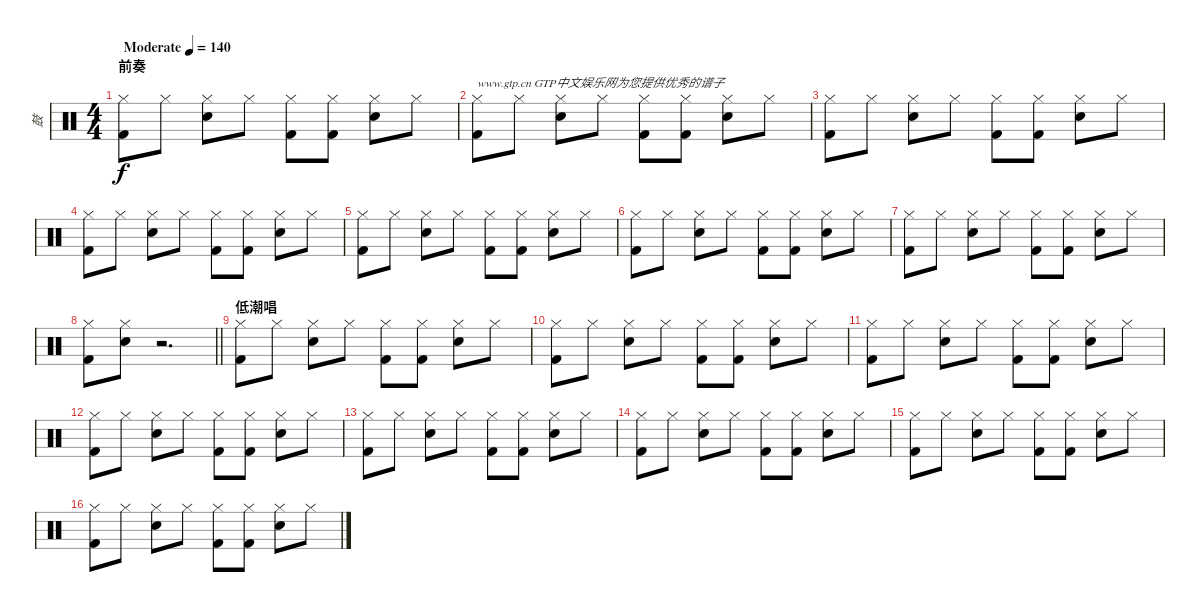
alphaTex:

\track ("鼓" "鼓") {instrument percussion}
\staff {score}
\articulation defaults
\ts (4 4)
\section ("" "前奏")
\tempo (140 "Moderate")
\clef neutral
\ks c
("Hi-Hat (closed)" "Kick (hit) 2").8{dy f} "Hi-Hat (closed)".8 ("Hi-Hat (closed)" "Snare (hit) 2").8 "Hi-Hat (closed)".8 ("Hi-Hat (closed)" "Kick (hit) 2").8 ("Hi-Hat (closed)" "Kick (hit) 2").8 ("Hi-Hat (closed)" "Snare (hit) 2").8 "Hi-Hat (closed)".8 |
("Hi-Hat (closed)" "Kick (hit) 2").8{txt "www.gtp.cn GTP中文娱乐网为您提供优秀的谱子"} "Hi-Hat (closed)".8 ("Hi-Hat (closed)" "Snare (hit) 2").8 "Hi-Hat (closed)".8 ("Hi-Hat (closed)" "Kick (hit) 2").8 ("Hi-Hat (closed)" "Kick (hit) 2").8 ("Hi-Hat (closed)" "Snare (hit) 2").8 "Hi-Hat (closed)".8 |
("Hi-Hat (closed)" "Kick (hit) 2").8 "Hi-Hat (closed)".8 ("Hi-Hat (closed)" "Snare (hit) 2").8 "Hi-Hat (closed)".8 ("Hi-Hat (closed)" "Kick (hit) 2").8 ("Hi-Hat (closed)" "Kick (hit) 2").8 ("Hi-Hat (closed)" "Snare (hit) 2").8 "Hi-Hat (closed)".8 |
("Hi-Hat (closed)" "Kick (hit) 2").8 "Hi-Hat (closed)".8 ("Hi-Hat (closed)" "Snare (hit) 2").8 "Hi-Hat (closed)".8 ("Hi-Hat (closed)" "Kick (hit) 2").8 ("Hi-Hat (closed)" "Kick (hit) 2").8 ("Hi-Hat (closed)" "Snare (hit) 2").8 "Hi-Hat (closed)".8 |
("Hi-Hat (closed)" "Kick (hit) 2").8 "Hi-Hat (closed)".8 ("Hi-Hat (closed)" "Snare (hit) 2").8 "Hi-Hat (closed)".8 ("Hi-Hat (closed)" "Kick (hit) 2").8 ("Hi-Hat (closed)" "Kick (hit) 2").8 ("Hi-Hat (closed)" "Snare (hit) 2").8 "Hi-Hat (closed)".8 |
("Hi-Hat (closed)" "Kick (hit) 2").8 "Hi-Hat (closed)".8 ("Hi-Hat (closed)" "Snare (hit) 2").8 "Hi-Hat (closed)".8 ("Hi-Hat (closed)" "Kick (hit) 2").8 ("Hi-Hat (closed)" "Kick (hit) 2").8 ("Hi-Hat (closed)" "Snare (hit) 2").8 "Hi-Hat (closed)".8 |
("Hi-Hat (closed)" "Kick (hit) 2").8 "Hi-Hat (closed)".8 ("Hi-Hat (closed)" "Snare (hit) 2").8 "Hi-Hat (closed)".8 ("Hi-Hat (closed)" "Kick (hit) 2").8 ("Hi-Hat (closed)" "Kick (hit) 2").8 ("Hi-Hat (closed)" "Snare (hit) 2").8 "Hi-Hat (closed)".8 |
\barLineRight lightlight
("Hi-Hat (closed)" "Kick (hit) 2").8 ("Hi-Hat (closed)" "Snare (hit) 2").8 r.2{d} |
\section ("" "低潮唱")
("Hi-Hat (closed)" "Kick (hit) 2").8 "Hi-Hat (closed)".8 ("Hi-Hat (closed)" "Snare (hit) 2").8 "Hi-Hat (closed)".8 ("Hi-Hat (closed)" "Kick (hit) 2").8 ("Hi-Hat (closed)" "Kick (hit) 2").8 ("Hi-Hat (closed)" "Snare (hit) 2").8 "Hi-Hat (closed)".8 |
("Hi-Hat (closed)" "Kick (hit) 2").8 "Hi-Hat (closed)".8 ("Hi-Hat (closed)" "Snare (hit) 2").8 "Hi-Hat (closed)".8 ("Hi-Hat (closed)" "Kick (hit) 2").8 ("Hi-Hat (closed)" "Kick (hit) 2").8 ("Hi-Hat (closed)" "Snare (hit) 2").8 "Hi-Hat (closed)".8 |
("Hi-Hat (closed)" "Kick (hit) 2").8 "Hi-Hat (closed)".8 ("Hi-Hat (closed)" "Snare (hit) 2").8 "Hi-Hat (closed)".8 ("Hi-Hat (closed)" "Kick (hit) 2").8 ("Hi-Hat (closed)" "Kick (hit) 2").8 ("Hi-Hat (closed)" "Snare (hit) 2").8 "Hi-Hat (closed)".8 |
("Hi-Hat (closed)" "Kick (hit) 2").8 "Hi-Hat (closed)".8 ("Hi-Hat (closed)" "Snare (hit) 2").8 "Hi-Hat (closed)".8 ("Hi-Hat (closed)" "Kick (hit) 2").8 ("Hi-Hat (closed)" "Kick (hit) 2").8 ("Hi-Hat (closed)" "Snare (hit) 2").8 "Hi-Hat (closed)".8 |
("Hi-Hat (closed)" "Kick (hit) 2").8 "Hi-Hat (closed)".8 ("Hi-Hat (closed)" "Snare (hit) 2").8 "Hi-Hat (closed)".8 ("Hi-Hat (closed)" "Kick (hit) 2").8 ("Hi-Hat (closed)" "Kick (hit) 2").8 ("Hi-Hat (closed)" "Snare (hit) 2").8 "Hi-Hat (closed)".8 |
("Hi-Hat (closed)" "Kick (hit) 2").8 "Hi-Hat (closed)".8 ("Hi-Hat (closed)" "Snare (hit) 2").8 "Hi-Hat (closed)".8 ("Hi-Hat (closed)" "Kick (hit) 2").8 ("Hi-Hat (closed)" "Kick (hit) 2").8 ("Hi-Hat (closed)" "Snare (hit) 2").8 "Hi-Hat (closed)".8 |
("Hi-Hat (closed)" "Kick (hit) 2").8 "Hi-Hat (closed)".8 ("Hi-Hat (closed)" "Snare (hit) 2").8 "Hi-Hat (closed)".8 ("Hi-Hat (closed)" "Kick (hit) 2").8 ("Hi-Hat (closed)" "Kick (hit) 2").8 ("Hi-Hat (closed)" "Snare (hit) 2").8 "Hi-Hat (closed)".8 |
("Hi-Hat (closed)" "Kick (hit) 2").8 "Hi-Hat (closed)".8 ("Hi-Hat (closed)" "Snare (hit) 2").8 "Hi-Hat (closed)".8 ("Hi-Hat (closed)" "Kick (hit) 2").8 ("Hi-Hat (closed)" "Kick (hit) 2").8 ("Hi-Hat (closed)" "Snare (hit) 2").8 "Hi-Hat (closed)".8
